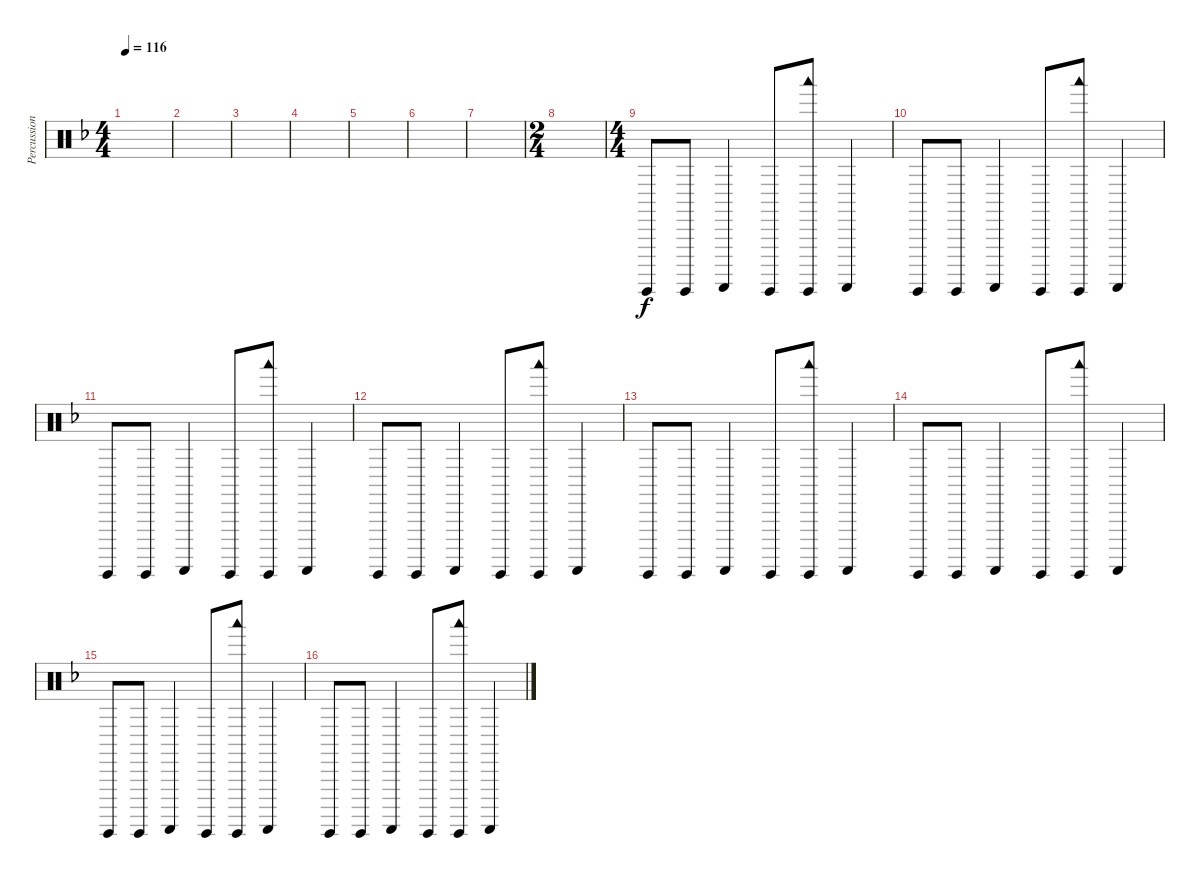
\track ("Percussions" "Percussion") {instrument percussion}
\staff {score}
\articulation defaults
\ts (4 4)
\tempo 116
\clef neutral
\ks dminor
|
|
|
|
|
|
|
\ts (2 4)
|
\ts (4 4)
"Guiro (hit)".8 "Guiro (hit)".8 "Guiro (scrap-return)".4 "Guiro (hit)".8 ("Guiro (hit)" "Woodblock low (hit)").8 "Guiro (scrap-return)".4 |
"Guiro (hit)".8 "Guiro (hit)".8 "Guiro (scrap-return)".4 "Guiro (hit)".8 ("Guiro (hit)" "Woodblock low (hit)").8 "Guiro (scrap-return)".4 |
"Guiro (hit)".8 "Guiro (hit)".8 "Guiro (scrap-return)".4 "Guiro (hit)".8 ("Guiro (hit)" "Woodblock low (hit)").8 "Guiro (scrap-return)".4 |
"Guiro (hit)".8 "Guiro (hit)".8 "Guiro (scrap-return)".4 "Guiro (hit)".8 ("Guiro (hit)" "Woodblock low (hit)").8 "Guiro (scrap-return)".4 |
"Guiro (hit)".8 "Guiro (hit)".8 "Guiro (scrap-return)".4 "Guiro (hit)".8 ("Guiro (hit)" "Woodblock low (hit)").8 "Guiro (scrap-return)".4 |
"Guiro (hit)".8 "Guiro (hit)".8 "Guiro (scrap-return)".4 "Guiro (hit)".8 ("Guiro (hit)" "Woodblock low (hit)").8 "Guiro (scrap-return)".4 |
"Guiro (hit)".8 "Guiro (hit)".8 "Guiro (scrap-return)".4 "Guiro (hit)".8 ("Guiro (hit)" "Woodblock low (hit)").8 "Guiro (scrap-return)".4 |
"Guiro (hit)".8 "Guiro (hit)".8 "Guiro (scrap-return)".4 "Guiro (hit)".8 ("Guiro (hit)" "Woodblock low (hit)").8 "Guiro (scrap-return)".4
